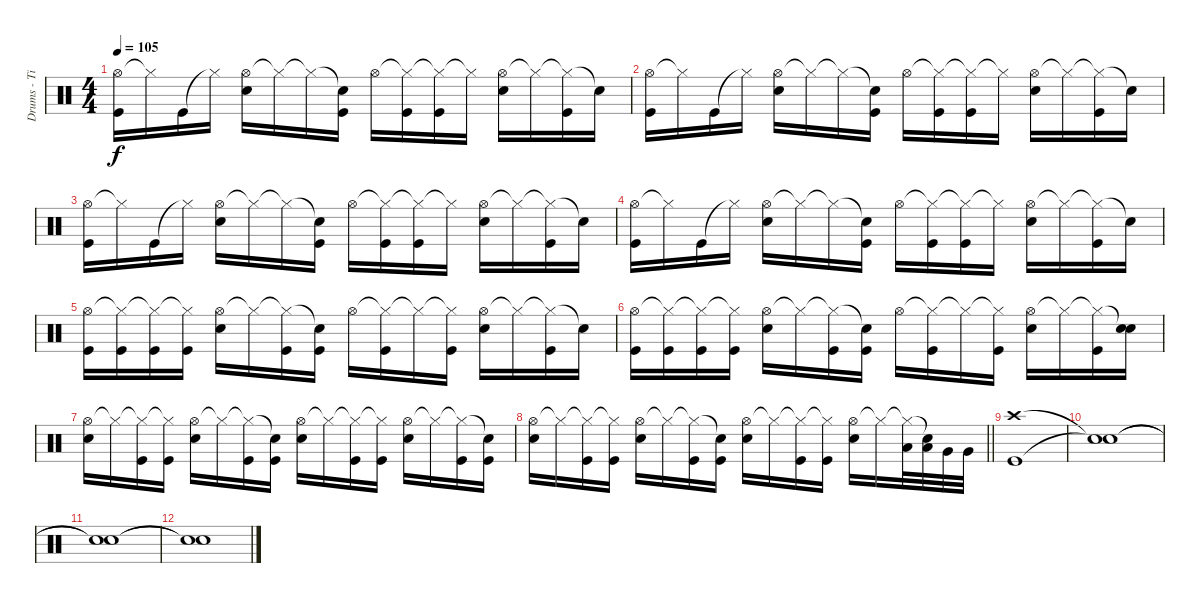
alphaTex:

\track ("Drums - Tipu" "Drums - Ti") {instrument percussion}
\staff {score}
\articulation defaults
\ts (4 4)
\tempo 105
\clef neutral
\ks c
("Hi-Hat (open)" "Kick (hit)").16{dy f} "Hi-Hat (closed)"{t}.16 "Kick (hit)".16 "Hi-Hat (closed)"{t}.16 ("Hi-Hat (open)" "Electric Snare (hit)").16 "Hi-Hat (closed)"{t}.16 "Hi-Hat (closed)"{t}.16 ("Snare (hit)"{t} "Kick (hit)").16 "Hi-Hat (open)".16 ("Hi-Hat (closed)"{t} "Kick (hit)").16 ("Hi-Hat (closed)"{t} "Kick (hit)").16 "Hi-Hat (closed)"{t}.16 ("Hi-Hat (open)" "Electric Snare (hit)").16 "Hi-Hat (closed)"{t}.16 ("Hi-Hat (closed)"{t} "Kick (hit)").16 "Snare (hit)"{t}.16 |
("Hi-Hat (open)" "Kick (hit)").16 "Hi-Hat (closed)"{t}.16 "Kick (hit)".16 "Hi-Hat (closed)"{t}.16 ("Hi-Hat (open)" "Electric Snare (hit)").16 "Hi-Hat (closed)"{t}.16 "Hi-Hat (closed)"{t}.16 ("Snare (hit)"{t} "Kick (hit)").16 "Hi-Hat (open)".16 ("Hi-Hat (closed)"{t} "Kick (hit)").16 ("Hi-Hat (closed)"{t} "Kick (hit)").16 "Hi-Hat (closed)"{t}.16 ("Hi-Hat (open)" "Electric Snare (hit)").16 "Hi-Hat (closed)"{t}.16 ("Hi-Hat (closed)"{t} "Kick (hit)").16 "Snare (hit)"{t}.16 |
("Hi-Hat (open)" "Kick (hit)").16 "Hi-Hat (closed)"{t}.16 "Kick (hit)".16 "Hi-Hat (closed)"{t}.16 ("Hi-Hat (open)" "Electric Snare (hit)").16 "Hi-Hat (closed)"{t}.16 "Hi-Hat (closed)"{t}.16 ("Snare (hit)"{t} "Kick (hit)").16 "Hi-Hat (open)".16 ("Hi-Hat (closed)"{t} "Kick (hit)").16 ("Hi-Hat (closed)"{t} "Kick (hit)").16 "Hi-Hat (closed)"{t}.16 ("Hi-Hat (open)" "Electric Snare (hit)").16 "Hi-Hat (closed)"{t}.16 ("Hi-Hat (closed)"{t} "Kick (hit)").16 "Snare (hit)"{t}.16 |
("Hi-Hat (open)" "Kick (hit)").16 "Hi-Hat (closed)"{t}.16 "Kick (hit)".16 "Hi-Hat (closed)"{t}.16 ("Hi-Hat (open)" "Electric Snare (hit)").16 "Hi-Hat (closed)"{t}.16 "Hi-Hat (closed)"{t}.16 ("Snare (hit)"{t} "Kick (hit)").16 "Hi-Hat (open)".16 ("Hi-Hat (closed)"{t} "Kick (hit)").16 ("Hi-Hat (closed)"{t} "Kick (hit)").16 "Hi-Hat (closed)"{t}.16 ("Hi-Hat (open)" "Electric Snare (hit)").16 "Hi-Hat (closed)"{t}.16 ("Hi-Hat (closed)"{t} "Kick (hit)").16 "Snare (hit)"{t}.16 |
("Hi-Hat (open)" "Kick (hit)").16 ("Hi-Hat (closed)"{t} "Kick (hit)").16 ("Hi-Hat (closed)"{t} "Kick (hit)").16 ("Hi-Hat (closed)"{t} "Kick (hit)").16 ("Hi-Hat (open)" "Electric Snare (hit)").16 "Hi-Hat (closed)"{t}.16 ("Hi-Hat (closed)"{t} "Kick (hit)").16 ("Snare (hit)"{t} "Kick (hit)").16 "Hi-Hat (open)".16 ("Hi-Hat (closed)"{t} "Kick (hit)").16 "Hi-Hat (closed)"{t}.16 ("Hi-Hat (closed)"{t} "Kick (hit)").16 ("Hi-Hat (open)" "Electric Snare (hit)").16 "Hi-Hat (closed)"{t}.16 ("Hi-Hat (closed)"{t} "Kick (hit)").16 "Snare (hit)"{t}.16 |
("Hi-Hat (open)" "Kick (hit)").16 ("Hi-Hat (closed)"{t} "Kick (hit)").16 ("Hi-Hat (closed)"{t} "Kick (hit)").16 ("Hi-Hat (closed)"{t} "Kick (hit)").16 ("Hi-Hat (open)" "Electric Snare (hit)").16 "Hi-Hat (closed)"{t}.16 ("Hi-Hat (closed)"{t} "Kick (hit)").16 ("Snare (hit)"{t} "Kick (hit)").16 "Hi-Hat (open)".16 ("Hi-Hat (closed)"{t} "Kick (hit)").16 "Hi-Hat (closed)"{t}.16 ("Hi-Hat (closed)"{t} "Kick (hit)").16 ("Hi-Hat (open)" "Electric Snare (hit)").16 "Hi-Hat (closed)"{t}.16 ("Hi-Hat (closed)"{t} "Kick (hit)").16 ("Snare (hit)"{t} "Electric Snare (hit)").16 |
("Hi-Hat (open)" "Electric Snare (hit)").16 "Hi-Hat (closed)"{t}.16 ("Hi-Hat (closed)"{t} "Kick (hit)").16 ("Hi-Hat (closed)"{t} "Kick (hit)").16 ("Hi-Hat (open)" "Electric Snare (hit)").16 "Hi-Hat (closed)"{t}.16 ("Hi-Hat (closed)"{t} "Kick (hit)").16 ("Snare (hit)"{t} "Kick (hit)").16 ("Hi-Hat (open)" "Electric Snare (hit)").16 "Hi-Hat (closed)"{t}.16 ("Hi-Hat (closed)"{t} "Kick (hit)").16 ("Hi-Hat (closed)"{t} "Kick (hit)").16 ("Hi-Hat (open)" "Electric Snare (hit)").16 "Hi-Hat (closed)"{t}.16 ("Hi-Hat (closed)"{t} "Kick (hit)").16 ("Snare (hit)"{t} "Kick (hit)").16 |
\barLineRight lightlight
("Hi-Hat (open)" "Electric Snare (hit)").16 "Hi-Hat (closed)"{t}.16 ("Hi-Hat (closed)"{t} "Kick (hit)").16 ("Hi-Hat (closed)"{t} "Kick (hit)").16 ("Hi-Hat (open)" "Electric Snare (hit)").16 "Hi-Hat (closed)"{t}.16 ("Hi-Hat (closed)"{t} "Kick (hit)").16 ("Snare (hit)"{t} "Kick (hit)").16 ("Hi-Hat (open)" "Electric Snare (hit)").16 "Hi-Hat (closed)"{t}.16 ("Hi-Hat (closed)"{t} "Kick (hit)").16 ("Hi-Hat (closed)"{t} "Kick (hit)").16 ("Hi-Hat (open)" "Electric Snare (hit)").16 "Hi-Hat (closed)"{t}.16 ("Hi-Hat (closed)"{t} "Low Tom (hit)").32 ("Snare (hit)"{t} "Low Tom (hit)").32 "Very Low Tom (hit)".32 "Very Low Tom (hit)".32 |
("Crash high (hit)" "Kick (hit)").1{volume 0} |
("Snare (hit)"{t} "Snare (hit)"{t}).1 |
("Snare (hit)"{t} "Snare (hit)"{t}).1 |
("Snare (hit)"{t} "Snare (hit)"{t}).1
